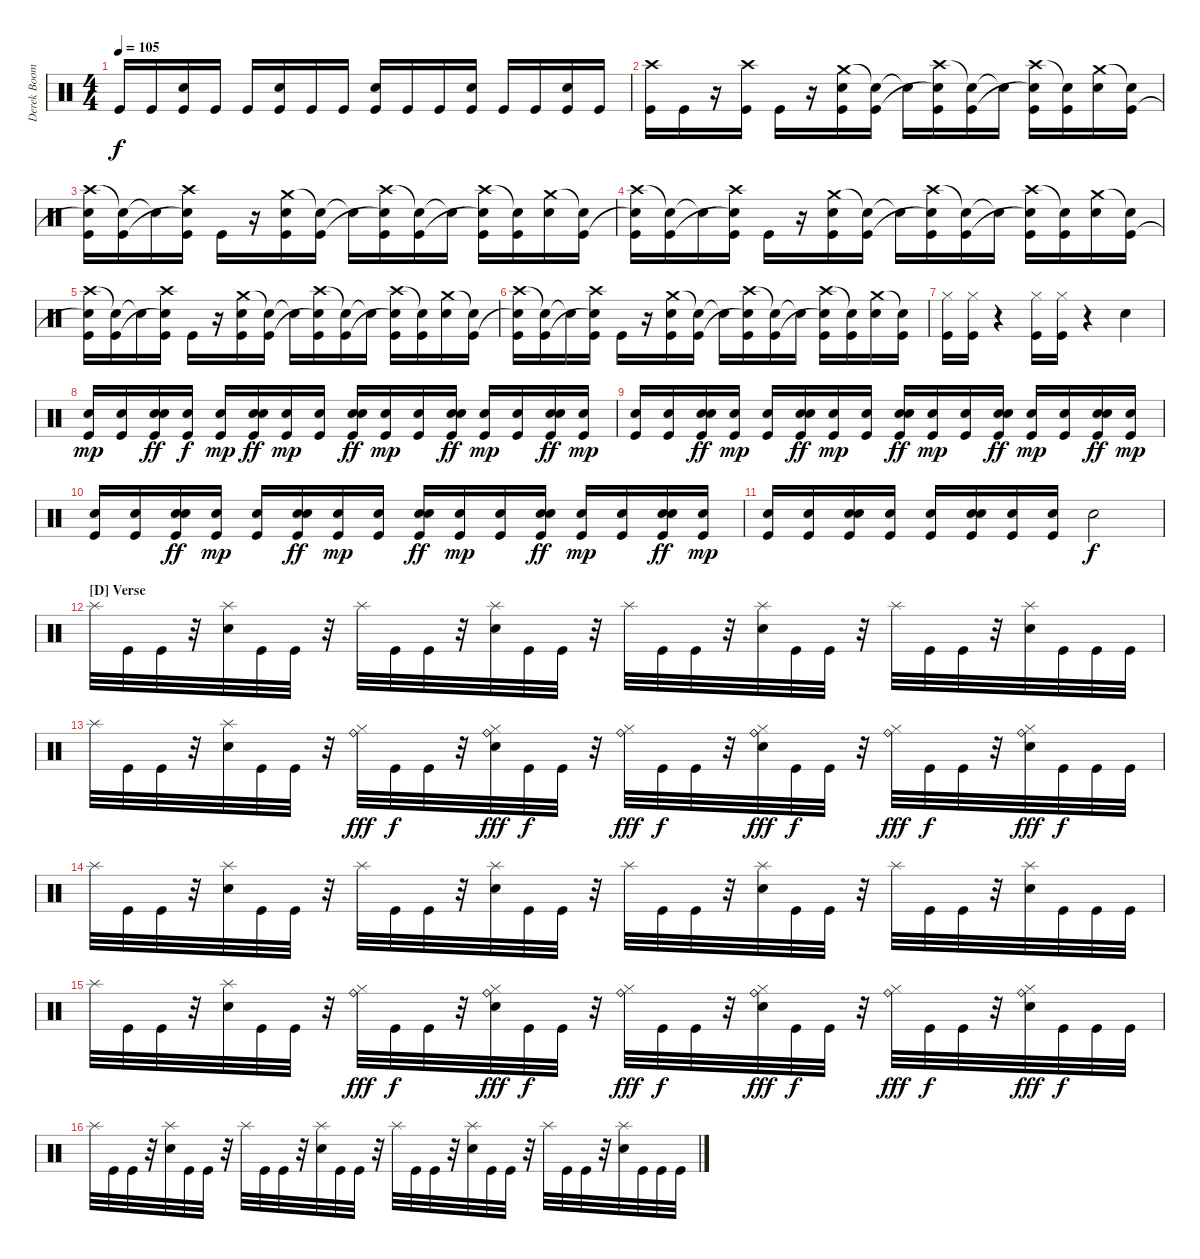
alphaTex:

\track ("Derek Boom" "Derek Boom") {instrument percussion}
\staff {score}
\articulation defaults
\ts (4 4)
\tempo 105
\clef neutral
\ks c "Kick (hit)".16{dy f} "Kick (hit)".16
("Electric Snare (hit)" "Kick (hit)").16 "Kick (hit)".16 "Kick (hit)".16 ("Electric Snare (hit)" "Kick (hit)").16 "Kick (hit)".16 "Kick (hit)".16 ("Electric Snare (hit)" "Kick (hit)").16 "Kick (hit)".16 "Kick (hit)".16 ("Electric Snare (hit)" "Kick (hit)").16 "Kick (hit)".16 "Kick (hit)".16 ("Electric Snare (hit)" "Kick (hit)").16 "Kick (hit)".16 |
("Crash high (hit)" "Kick (hit)").16 "Kick (hit)".16 r.16 ("Crash high (hit)" "Kick (hit)").16 "Kick (hit)".16 r.16 ("Crash medium (hit)" "Electric Snare (hit)" "Kick (hit)").16 ("Snare (hit)"{t} "Kick (hit)").16 "Snare (hit)"{t}.16 ("Crash high (hit)" "Electric Snare (hit)"{t} "Kick (hit)").16 ("Snare (hit)"{t} "Kick (hit)").16 "Snare (hit)"{t}.16 ("Crash high (hit)" "Electric Snare (hit)"{t} "Kick (hit)").16 ("Snare (hit)"{t} "Kick (hit)").16 ("Crash medium (hit)" "Electric Snare (hit)").16 ("Snare (hit)"{t} "Kick (hit)").16 |
("Crash high (hit)" "Electric Snare (hit)"{t} "Kick (hit)").16 ("Snare (hit)"{t} "Kick (hit)").16 "Snare (hit)"{t}.16 ("Crash high (hit)" "Electric Snare (hit)"{t} "Kick (hit)").16 "Kick (hit)".16 r.16 ("Crash medium (hit)" "Electric Snare (hit)" "Kick (hit)").16 ("Snare (hit)"{t} "Kick (hit)").16 "Snare (hit)"{t}.16 ("Crash high (hit)" "Electric Snare (hit)"{t} "Kick (hit)").16 ("Snare (hit)"{t} "Kick (hit)").16 "Snare (hit)"{t}.16 ("Crash high (hit)" "Electric Snare (hit)"{t} "Kick (hit)").16 ("Snare (hit)"{t} "Kick (hit)").16 ("Crash medium (hit)" "Electric Snare (hit)").16 ("Snare (hit)"{t} "Kick (hit)").16 |
("Crash high (hit)" "Electric Snare (hit)"{t} "Kick (hit)").16 ("Snare (hit)"{t} "Kick (hit)").16 "Snare (hit)"{t}.16 ("Crash high (hit)" "Electric Snare (hit)"{t} "Kick (hit)").16 "Kick (hit)".16 r.16 ("Crash medium (hit)" "Electric Snare (hit)" "Kick (hit)").16 ("Snare (hit)"{t} "Kick (hit)").16 "Snare (hit)"{t}.16 ("Crash high (hit)" "Electric Snare (hit)"{t} "Kick (hit)").16 ("Snare (hit)"{t} "Kick (hit)").16 "Snare (hit)"{t}.16 ("Crash high (hit)" "Electric Snare (hit)"{t} "Kick (hit)").16 ("Snare (hit)"{t} "Kick (hit)").16 ("Crash medium (hit)" "Electric Snare (hit)").16 ("Snare (hit)"{t} "Kick (hit)").16 |
("Crash high (hit)" "Electric Snare (hit)"{t} "Kick (hit)").16 ("Snare (hit)"{t} "Kick (hit)").16 "Snare (hit)"{t}.16 ("Crash high (hit)" "Electric Snare (hit)"{t} "Kick (hit)").16 "Kick (hit)".16 r.16 ("Crash medium (hit)" "Electric Snare (hit)" "Kick (hit)").16 ("Snare (hit)"{t} "Kick (hit)").16 "Snare (hit)"{t}.16 ("Crash high (hit)" "Electric Snare (hit)"{t} "Kick (hit)").16 ("Snare (hit)"{t} "Kick (hit)").16 "Snare (hit)"{t}.16 ("Crash high (hit)" "Electric Snare (hit)"{t} "Kick (hit)").16 ("Snare (hit)"{t} "Kick (hit)").16 ("Crash medium (hit)" "Electric Snare (hit)").16 ("Snare (hit)"{t} "Kick (hit)").16 |
("Crash high (hit)" "Electric Snare (hit)"{t} "Kick (hit)").16 ("Snare (hit)"{t} "Kick (hit)").16 "Snare (hit)"{t}.16 ("Crash high (hit)" "Electric Snare (hit)"{t} "Kick (hit)").16 "Kick (hit)".16 r.16 ("Crash medium (hit)" "Electric Snare (hit)" "Kick (hit)").16 ("Snare (hit)"{t} "Kick (hit)").16 "Snare (hit)"{t}.16 ("Crash high (hit)" "Electric Snare (hit)"{t} "Kick (hit)").16 ("Snare (hit)"{t} "Kick (hit)").16 "Snare (hit)"{t}.16 ("Crash high (hit)" "Electric Snare (hit)"{t} "Kick (hit)").16 ("Snare (hit)"{t} "Kick (hit)").16 ("Crash medium (hit)" "Electric Snare (hit)").16 ("Snare (hit)"{t} "Kick (hit)").16 |
("Hi-Hat (closed)" "Kick (hit)").16 ("Hi-Hat (closed)" "Kick (hit)").16 r.4 ("Hi-Hat (closed)" "Kick (hit)").16 ("Hi-Hat (closed)" "Kick (hit)").16 r.4 "Electric Snare (hit)".4 |
("Electric Snare (hit)" "Kick (hit)").16{dy mp} ("Electric Snare (hit)" "Kick (hit)").16 ("Electric Snare (hit)" "Electric Snare (hit)" "Kick (hit)").16{dy ff} ("Electric Snare (hit)" "Kick (hit)").16{dy f} ("Electric Snare (hit)" "Kick (hit)").16{dy mp} ("Electric Snare (hit)" "Electric Snare (hit)" "Kick (hit)").16{dy ff} ("Electric Snare (hit)" "Kick (hit)").16{dy mp} ("Electric Snare (hit)" "Kick (hit)").16 ("Electric Snare (hit)" "Electric Snare (hit)" "Kick (hit)").16{dy ff} ("Electric Snare (hit)" "Kick (hit)").16{dy mp} ("Electric Snare (hit)" "Kick (hit)").16 ("Electric Snare (hit)" "Electric Snare (hit)" "Kick (hit)").16{dy ff} ("Electric Snare (hit)" "Kick (hit)").16{dy mp} ("Electric Snare (hit)" "Kick (hit)").16 ("Electric Snare (hit)" "Electric Snare (hit)" "Kick (hit)").16{dy ff} ("Electric Snare (hit)" "Kick (hit)").16{dy mp} |
("Electric Snare (hit)" "Kick (hit)").16 ("Electric Snare (hit)" "Kick (hit)").16 ("Electric Snare (hit)" "Electric Snare (hit)" "Kick (hit)").16{dy ff} ("Electric Snare (hit)" "Kick (hit)").16{dy mp} ("Electric Snare (hit)" "Kick (hit)").16 ("Electric Snare (hit)" "Electric Snare (hit)" "Kick (hit)").16{dy ff} ("Electric Snare (hit)" "Kick (hit)").16{dy mp} ("Electric Snare (hit)" "Kick (hit)").16 ("Electric Snare (hit)" "Electric Snare (hit)" "Kick (hit)").16{dy ff} ("Electric Snare (hit)" "Kick (hit)").16{dy mp} ("Electric Snare (hit)" "Kick (hit)").16 ("Electric Snare (hit)" "Electric Snare (hit)" "Kick (hit)").16{dy ff} ("Electric Snare (hit)" "Kick (hit)").16{dy mp} ("Electric Snare (hit)" "Kick (hit)").16 ("Electric Snare (hit)" "Electric Snare (hit)" "Kick (hit)").16{dy ff} ("Electric Snare (hit)" "Kick (hit)").16{dy mp} |
("Electric Snare (hit)" "Kick (hit)").16 ("Electric Snare (hit)" "Kick (hit)").16 ("Electric Snare (hit)" "Electric Snare (hit)" "Kick (hit)").16{dy ff} ("Electric Snare (hit)" "Kick (hit)").16{dy mp} ("Electric Snare (hit)" "Kick (hit)").16 ("Electric Snare (hit)" "Electric Snare (hit)" "Kick (hit)").16{dy ff} ("Electric Snare (hit)" "Kick (hit)").16{dy mp} ("Electric Snare (hit)" "Kick (hit)").16 ("Electric Snare (hit)" "Electric Snare (hit)" "Kick (hit)").16{dy ff} ("Electric Snare (hit)" "Kick (hit)").16{dy mp} ("Electric Snare (hit)" "Kick (hit)").16 ("Electric Snare (hit)" "Electric Snare (hit)" "Kick (hit)").16{dy ff} ("Electric Snare (hit)" "Kick (hit)").16{dy mp} ("Electric Snare (hit)" "Kick (hit)").16 ("Electric Snare (hit)" "Electric Snare (hit)" "Kick (hit)").16{dy ff} ("Electric Snare (hit)" "Kick (hit)").16{dy mp} |
("Electric Snare (hit)" "Kick (hit)").16 ("Electric Snare (hit)" "Kick (hit)").16 ("Electric Snare (hit)" "Electric Snare (hit)" "Kick (hit)").16 ("Electric Snare (hit)" "Kick (hit)").16 ("Electric Snare (hit)" "Kick (hit)").16 ("Electric Snare (hit)" "Electric Snare (hit)" "Kick (hit)").16 ("Electric Snare (hit)" "Kick (hit)").16 ("Electric Snare (hit)" "Kick (hit)").16 "Electric Snare (hit)".2{dy f} |
\section ("" "[D] Verse")
"Splash (hit)".32 "Kick (hit)".32 "Kick (hit)".32 r.32 ("Splash (hit)" "Electric Snare (hit)").32 "Kick (hit)".32 "Kick (hit)".32 r.32 "Splash (hit)".32 "Kick (hit)".32 "Kick (hit)".32 r.32 ("Splash (hit)" "Electric Snare (hit)").32 "Kick (hit)".32 "Kick (hit)".32 r.32 "Splash (hit)".32 "Kick (hit)".32 "Kick (hit)".32 r.32 ("Splash (hit)" "Electric Snare (hit)").32 "Kick (hit)".32 "Kick (hit)".32 r.32 "Splash (hit)".32 "Kick (hit)".32 "Kick (hit)".32 r.32 ("Splash (hit)" "Electric Snare (hit)").32 "Kick (hit)".32 "Kick (hit)".32 "Kick (hit)".32 |
"Splash (hit)".32 "Kick (hit)".32 "Kick (hit)".32 r.32 ("Splash (hit)" "Electric Snare (hit)").32 "Kick (hit)".32 "Kick (hit)".32 r.32 ("Ride (bell)" "Hi-Hat (closed)").32{dy fff} "Kick (hit)".32{dy f} "Kick (hit)".32 r.32 ("Ride (bell)" "Electric Snare (hit)" "Hi-Hat (closed)").32{dy fff} "Kick (hit)".32{dy f} "Kick (hit)".32 r.32 ("Ride (bell)" "Hi-Hat (closed)").32{dy fff} "Kick (hit)".32{dy f} "Kick (hit)".32 r.32 ("Ride (bell)" "Electric Snare (hit)" "Hi-Hat (closed)").32{dy fff} "Kick (hit)".32{dy f} "Kick (hit)".32 r.32 ("Ride (bell)" "Hi-Hat (closed)").32{dy fff} "Kick (hit)".32{dy f} "Kick (hit)".32 r.32 ("Ride (bell)" "Electric Snare (hit)" "Hi-Hat (closed)").32{dy fff} "Kick (hit)".32{dy f} "Kick (hit)".32 "Kick (hit)".32 |
"Splash (hit)".32 "Kick (hit)".32 "Kick (hit)".32 r.32 ("Splash (hit)" "Electric Snare (hit)").32 "Kick (hit)".32 "Kick (hit)".32 r.32 "Splash (hit)".32 "Kick (hit)".32 "Kick (hit)".32 r.32 ("Splash (hit)" "Electric Snare (hit)").32 "Kick (hit)".32 "Kick (hit)".32 r.32 "Splash (hit)".32 "Kick (hit)".32 "Kick (hit)".32 r.32 ("Splash (hit)" "Electric Snare (hit)").32 "Kick (hit)".32 "Kick (hit)".32 r.32 "Splash (hit)".32 "Kick (hit)".32 "Kick (hit)".32 r.32 ("Splash (hit)" "Electric Snare (hit)").32 "Kick (hit)".32 "Kick (hit)".32 "Kick (hit)".32 |
"Splash (hit)".32 "Kick (hit)".32 "Kick (hit)".32 r.32 ("Splash (hit)" "Electric Snare (hit)").32 "Kick (hit)".32 "Kick (hit)".32 r.32 ("Ride (bell)" "Hi-Hat (closed)").32{dy fff} "Kick (hit)".32{dy f} "Kick (hit)".32 r.32 ("Ride (bell)" "Electric Snare (hit)" "Hi-Hat (closed)").32{dy fff} "Kick (hit)".32{dy f} "Kick (hit)".32 r.32 ("Ride (bell)" "Hi-Hat (closed)").32{dy fff} "Kick (hit)".32{dy f} "Kick (hit)".32 r.32 ("Ride (bell)" "Electric Snare (hit)" "Hi-Hat (closed)").32{dy fff} "Kick (hit)".32{dy f} "Kick (hit)".32 r.32 ("Ride (bell)" "Hi-Hat (closed)").32{dy fff} "Kick (hit)".32{dy f} "Kick (hit)".32 r.32 ("Ride (bell)" "Electric Snare (hit)" "Hi-Hat (closed)").32{dy fff} "Kick (hit)".32{dy f} "Kick (hit)".32 "Kick (hit)".32 |
"Splash (hit)".32 "Kick (hit)".32 "Kick (hit)".32 r.32 ("Splash (hit)" "Electric Snare (hit)").32 "Kick (hit)".32 "Kick (hit)".32 r.32 "Splash (hit)".32 "Kick (hit)".32 "Kick (hit)".32 r.32 ("Splash (hit)" "Electric Snare (hit)").32 "Kick (hit)".32 "Kick (hit)".32 r.32 "Splash (hit)".32 "Kick (hit)".32 "Kick (hit)".32 r.32 ("Splash (hit)" "Electric Snare (hit)").32 "Kick (hit)".32 "Kick (hit)".32 r.32 "Splash (hit)".32 "Kick (hit)".32 "Kick (hit)".32 r.32 ("Splash (hit)" "Electric Snare (hit)").32 "Kick (hit)".32 "Kick (hit)".32 "Kick (hit)".32
